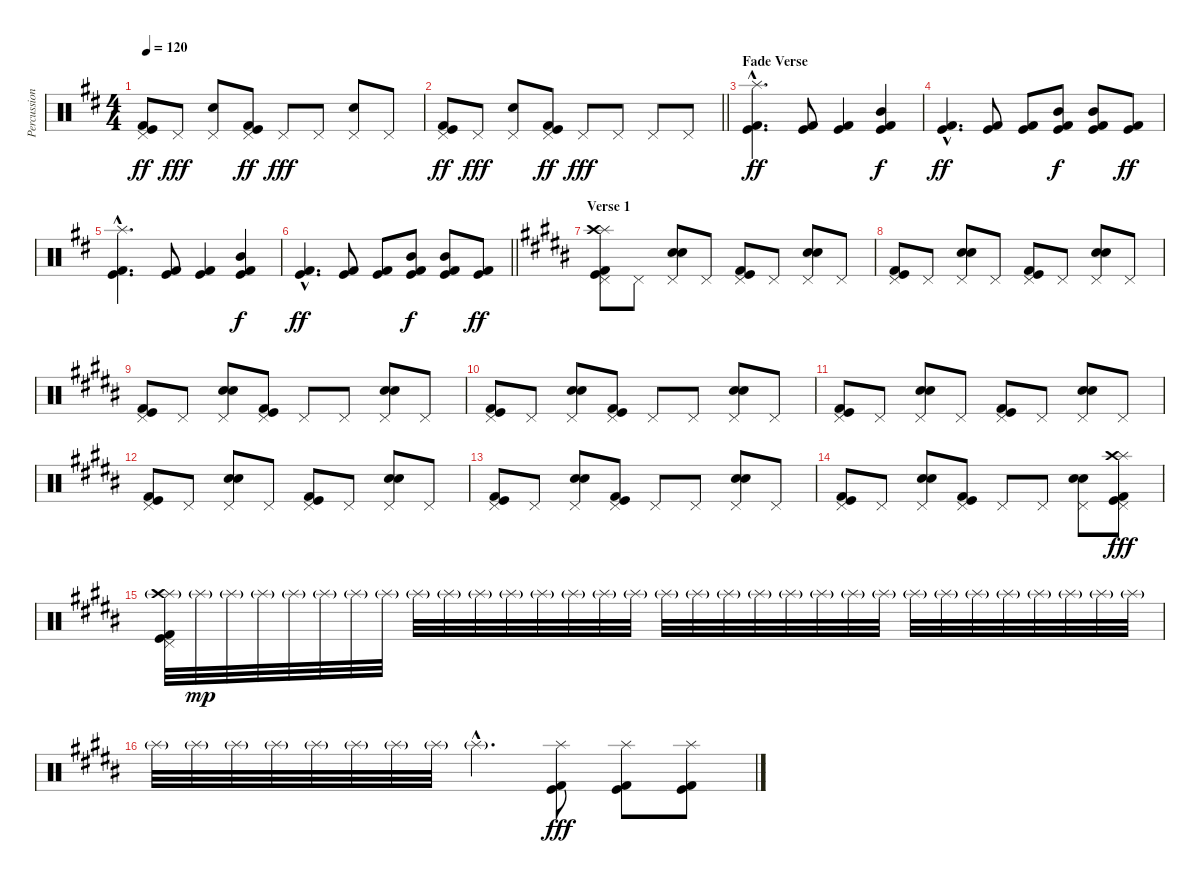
\track ("Percussion" "Percussion") {instrument percussion}
\staff {score}
\articulation defaults
\ts (4 4)
\tempo 120
\clef neutral
\ks d
("Pedal Hi-Hat (hit)" "Kick (hit)" "Kick (hit) 2").8{dy ff} "Pedal Hi-Hat (hit)".8{dy fff} ("Snare (hit) 2" "Pedal Hi-Hat (hit)").8 ("Pedal Hi-Hat (hit)" "Kick (hit)" "Kick (hit) 2").8{dy ff} "Pedal Hi-Hat (hit)".8{dy fff} "Pedal Hi-Hat (hit)".8 ("Snare (hit) 2" "Pedal Hi-Hat (hit)").8 "Pedal Hi-Hat (hit)".8 |
\barLineRight lightlight
("Pedal Hi-Hat (hit)" "Kick (hit)" "Kick (hit) 2").8{dy ff} "Pedal Hi-Hat (hit)".8{dy fff} ("Snare (hit) 2" "Pedal Hi-Hat (hit)").8 ("Pedal Hi-Hat (hit)" "Kick (hit)" "Kick (hit) 2").8{dy ff} "Pedal Hi-Hat (hit)".8{dy fff} "Pedal Hi-Hat (hit)".8 "Pedal Hi-Hat (hit)".8 "Pedal Hi-Hat (hit)".8 |
\section ("" "Fade Verse")
("Splash (hit)"{hac} "Kick (hit)"{hac} "Kick (hit) 2"{hac}).4{d dy ff} ("Kick (hit)" "Kick (hit) 2").8 ("Kick (hit)" "Kick (hit) 2").4 ("Mid Tom (hit)" "Kick (hit)" "Kick (hit) 2").4{dy f} |
("Kick (hit)"{hac} "Kick (hit) 2"{hac}).4{d dy ff} ("Kick (hit)" "Kick (hit) 2").8 ("Kick (hit)" "Kick (hit) 2").8 ("Mid Tom (hit)" "Kick (hit)" "Kick (hit) 2").8{dy f} ("Mid Tom (hit)" "Kick (hit)" "Kick (hit) 2").8 ("Kick (hit)" "Kick (hit) 2").8{dy ff} |
("Splash (hit)"{hac} "Kick (hit)"{hac} "Kick (hit) 2"{hac}).4{d} ("Kick (hit)" "Kick (hit) 2").8 ("Kick (hit)" "Kick (hit) 2").4 ("Mid Tom (hit)" "Kick (hit)" "Kick (hit) 2").4{dy f} |
\barLineRight lightlight
("Kick (hit)"{hac} "Kick (hit) 2"{hac}).4{d dy ff} ("Kick (hit)" "Kick (hit) 2").8 ("Kick (hit)" "Kick (hit) 2").8 ("Mid Tom (hit)" "Kick (hit)" "Kick (hit) 2").8{dy f} ("Mid Tom (hit)" "Kick (hit)" "Kick (hit) 2").8 ("Kick (hit)" "Kick (hit) 2").8{dy ff} |
\section ("" "Verse 1")
\ks b
("Splash (hit)" "Crash high (hit)" "Pedal Hi-Hat (hit)" "Kick (hit)" "Kick (hit) 2").8 "Pedal Hi-Hat (hit)".8 ("Electric Snare (hit)" "Snare (hit) 2" "Pedal Hi-Hat (hit)").8 "Pedal Hi-Hat (hit)".8 ("Pedal Hi-Hat (hit)" "Kick (hit) 2" "Kick (hit)").8 "Pedal Hi-Hat (hit)".8 ("Electric Snare (hit)" "Snare (hit) 2" "Pedal Hi-Hat (hit)").8 "Pedal Hi-Hat (hit)".8 |
("Pedal Hi-Hat (hit)" "Kick (hit)" "Kick (hit) 2").8 "Pedal Hi-Hat (hit)".8 ("Electric Snare (hit)" "Snare (hit) 2" "Pedal Hi-Hat (hit)").8 "Pedal Hi-Hat (hit)".8 ("Pedal Hi-Hat (hit)" "Kick (hit) 2" "Kick (hit)").8 "Pedal Hi-Hat (hit)".8 ("Electric Snare (hit)" "Snare (hit) 2" "Pedal Hi-Hat (hit)").8 "Pedal Hi-Hat (hit)".8 |
("Pedal Hi-Hat (hit)" "Kick (hit)" "Kick (hit) 2").8 "Pedal Hi-Hat (hit)".8 ("Electric Snare (hit)" "Snare (hit) 2" "Pedal Hi-Hat (hit)").8 ("Pedal Hi-Hat (hit)" "Kick (hit)" "Kick (hit) 2").8 "Pedal Hi-Hat (hit)".8 "Pedal Hi-Hat (hit)".8 ("Electric Snare (hit)" "Snare (hit) 2" "Pedal Hi-Hat (hit)").8 "Pedal Hi-Hat (hit)".8 |
("Pedal Hi-Hat (hit)" "Kick (hit)" "Kick (hit) 2").8 "Pedal Hi-Hat (hit)".8 ("Electric Snare (hit)" "Snare (hit) 2" "Pedal Hi-Hat (hit)").8 ("Pedal Hi-Hat (hit)" "Kick (hit)" "Kick (hit) 2").8 "Pedal Hi-Hat (hit)".8 "Pedal Hi-Hat (hit)".8 ("Electric Snare (hit)" "Snare (hit) 2" "Pedal Hi-Hat (hit)").8 "Pedal Hi-Hat (hit)".8 |
("Pedal Hi-Hat (hit)" "Kick (hit)" "Kick (hit) 2").8 "Pedal Hi-Hat (hit)".8 ("Electric Snare (hit)" "Snare (hit) 2" "Pedal Hi-Hat (hit)").8 "Pedal Hi-Hat (hit)".8 ("Pedal Hi-Hat (hit)" "Kick (hit) 2" "Kick (hit)").8 "Pedal Hi-Hat (hit)".8 ("Electric Snare (hit)" "Snare (hit) 2" "Pedal Hi-Hat (hit)").8 "Pedal Hi-Hat (hit)".8 |
("Pedal Hi-Hat (hit)" "Kick (hit)" "Kick (hit) 2").8 "Pedal Hi-Hat (hit)".8 ("Electric Snare (hit)" "Snare (hit) 2" "Pedal Hi-Hat (hit)").8 "Pedal Hi-Hat (hit)".8 ("Pedal Hi-Hat (hit)" "Kick (hit) 2" "Kick (hit)").8 "Pedal Hi-Hat (hit)".8 ("Electric Snare (hit)" "Snare (hit) 2" "Pedal Hi-Hat (hit)").8 "Pedal Hi-Hat (hit)".8 |
("Pedal Hi-Hat (hit)" "Kick (hit)" "Kick (hit) 2").8 "Pedal Hi-Hat (hit)".8 ("Electric Snare (hit)" "Snare (hit) 2" "Pedal Hi-Hat (hit)").8 ("Pedal Hi-Hat (hit)" "Kick (hit)" "Kick (hit) 2").8 "Pedal Hi-Hat (hit)".8 "Pedal Hi-Hat (hit)".8 ("Electric Snare (hit)" "Snare (hit) 2" "Pedal Hi-Hat (hit)").8 "Pedal Hi-Hat (hit)".8 |
("Pedal Hi-Hat (hit)" "Kick (hit)" "Kick (hit) 2").8 "Pedal Hi-Hat (hit)".8 ("Electric Snare (hit)" "Snare (hit) 2" "Pedal Hi-Hat (hit)").8 ("Pedal Hi-Hat (hit)" "Kick (hit)" "Kick (hit) 2").8 "Pedal Hi-Hat (hit)".8 "Pedal Hi-Hat (hit)".8 ("Electric Snare (hit)" "Snare (hit) 2" "Pedal Hi-Hat (hit)").8 ("Splash (hit)" "Crash high (hit)" "Pedal Hi-Hat (hit)" "Kick (hit)" "Kick (hit) 2").8{dy fff} |
("Splash (hit)"{g} "Crash high (hit)" "Pedal Hi-Hat (hit)" "Kick (hit)" "Kick (hit) 2").32 "Splash (hit)"{g}.32{dy mp} "Splash (hit)"{g}.32 "Splash (hit)"{g}.32 "Splash (hit)"{g}.32 "Splash (hit)"{g}.32 "Splash (hit)"{g}.32 "Splash (hit)"{g}.32 "Splash (hit)"{g}.32 "Splash (hit)"{g}.32 "Splash (hit)"{g}.32 "Splash (hit)"{g}.32 "Splash (hit)"{g}.32 "Splash (hit)"{g}.32 "Splash (hit)"{g}.32 "Splash (hit)"{g}.32 "Splash (hit)"{g}.32 "Splash (hit)"{g}.32 "Splash (hit)"{g}.32 "Splash (hit)"{g}.32 "Splash (hit)"{g}.32 "Splash (hit)"{g}.32 "Splash (hit)"{g}.32 "Splash (hit)"{g}.32 "Splash (hit)"{g}.32 "Splash (hit)"{g}.32 "Splash (hit)"{g}.32 "Splash (hit)"{g}.32 "Splash (hit)"{g}.32 "Splash (hit)"{g}.32 "Splash (hit)"{g}.32 "Splash (hit)"{g}.32 |
"Splash (hit)"{g}.32 "Splash (hit)"{g}.32 "Splash (hit)"{g}.32 "Splash (hit)"{g}.32 "Splash (hit)"{g}.32 "Splash (hit)"{g}.32 "Splash (hit)"{g}.32 "Splash (hit)"{g}.32 "Splash (hit)"{g hac}.4{d} ("Splash (hit)" "Kick (hit)" "Kick (hit) 2").8{dy fff} ("Splash (hit)" "Kick (hit)" "Kick (hit) 2").8 ("Splash (hit)" "Kick (hit)" "Kick (hit) 2").8
